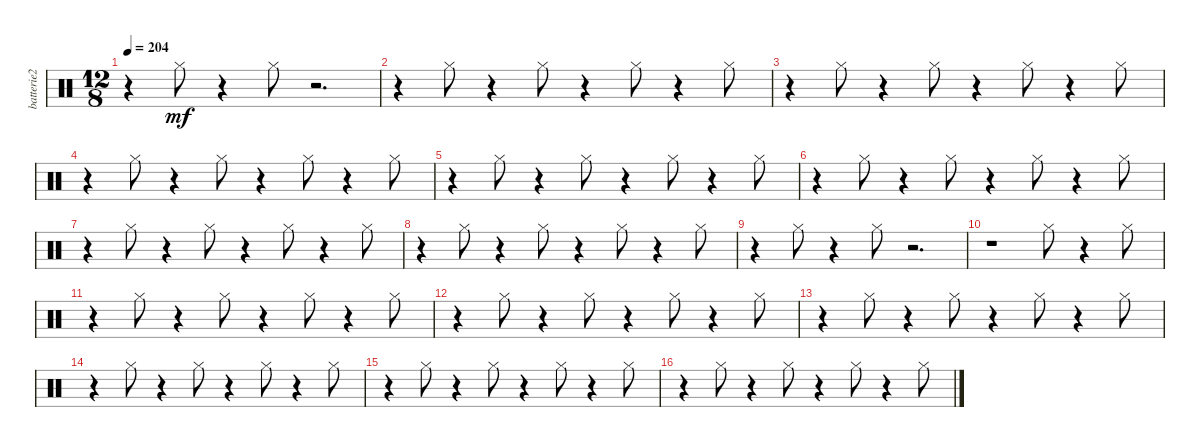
\track ("batterie2" "batterie2") {instrument percussion}
\staff {score}
\articulation defaults
\ts (12 8)
\tempo 204
\clef neutral
\ks c
r.4{dy mf} "Hi-Hat (closed)".8 r.4 "Hi-Hat (closed)".8 r.2{d} |
r.4 "Hi-Hat (closed)".8 r.4 "Hi-Hat (closed)".8 r.4 "Hi-Hat (closed)".8 r.4 "Hi-Hat (closed)".8 |
r.4 "Hi-Hat (closed)".8 r.4 "Hi-Hat (closed)".8 r.4 "Hi-Hat (closed)".8 r.4 "Hi-Hat (closed)".8 |
r.4 "Hi-Hat (closed)".8 r.4 "Hi-Hat (closed)".8 r.4 "Hi-Hat (closed)".8 r.4 "Hi-Hat (closed)".8 |
r.4 "Hi-Hat (closed)".8 r.4 "Hi-Hat (closed)".8 r.4 "Hi-Hat (closed)".8 r.4 "Hi-Hat (closed)".8 |
r.4 "Hi-Hat (closed)".8 r.4 "Hi-Hat (closed)".8 r.4 "Hi-Hat (closed)".8 r.4 "Hi-Hat (closed)".8 |
r.4 "Hi-Hat (closed)".8 r.4 "Hi-Hat (closed)".8 r.4 "Hi-Hat (closed)".8 r.4 "Hi-Hat (closed)".8 |
r.4 "Hi-Hat (closed)".8 r.4 "Hi-Hat (closed)".8 r.4 "Hi-Hat (closed)".8 r.4 "Hi-Hat (closed)".8 |
r.4 "Hi-Hat (closed)".8 r.4 "Hi-Hat (closed)".8 r.2{d} |
r.1 "Hi-Hat (closed)".8 r.4 "Hi-Hat (closed)".8 |
r.4 "Hi-Hat (closed)".8 r.4 "Hi-Hat (closed)".8 r.4 "Hi-Hat (closed)".8 r.4 "Hi-Hat (closed)".8 |
r.4 "Hi-Hat (closed)".8 r.4 "Hi-Hat (closed)".8 r.4 "Hi-Hat (closed)".8 r.4 "Hi-Hat (closed)".8 |
r.4 "Hi-Hat (closed)".8 r.4 "Hi-Hat (closed)".8 r.4 "Hi-Hat (closed)".8 r.4 "Hi-Hat (closed)".8 |
r.4 "Hi-Hat (closed)".8 r.4 "Hi-Hat (closed)".8 r.4 "Hi-Hat (closed)".8 r.4 "Hi-Hat (closed)".8 |
r.4 "Hi-Hat (closed)".8 r.4 "Hi-Hat (closed)".8 r.4 "Hi-Hat (closed)".8 r.4 "Hi-Hat (closed)".8 |
r.4 "Hi-Hat (closed)".8 r.4 "Hi-Hat (closed)".8 r.4 "Hi-Hat (closed)".8 r.4 "Hi-Hat (closed)".8
